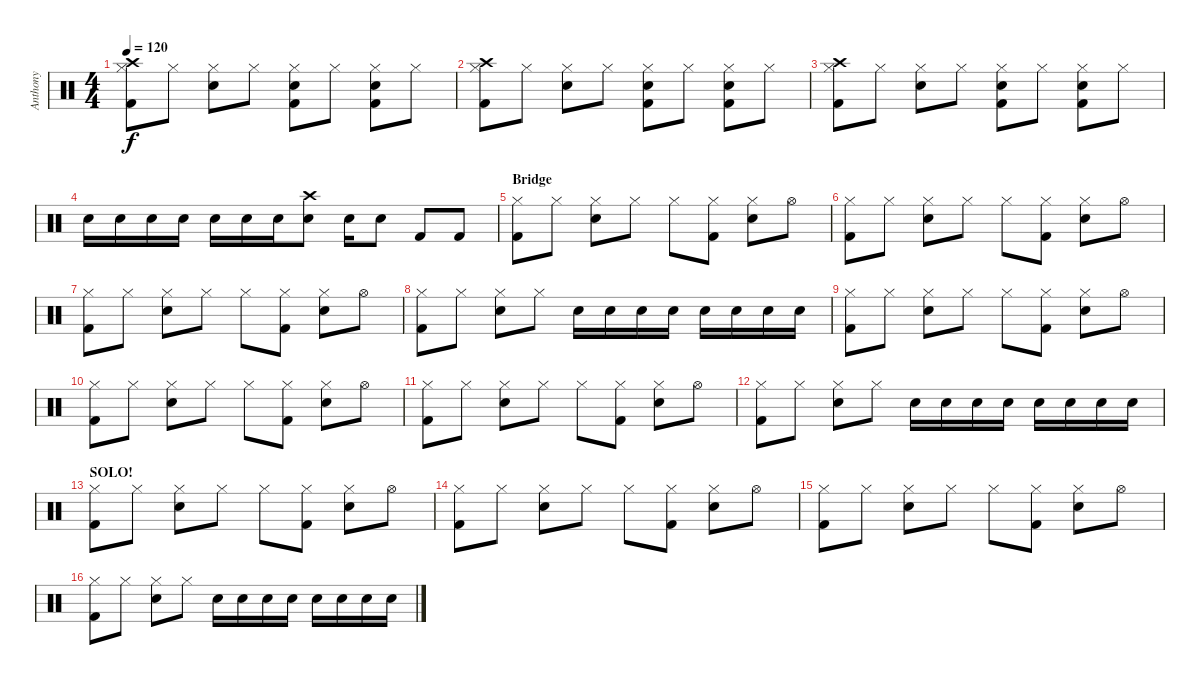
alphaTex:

\track ("Anthony" "Anthony") {instrument percussion}
\staff {score}
\articulation defaults
\ts (4 4)
\tempo 120
\clef neutral
\ks c
("Hi-Hat (closed)" "Crash high (hit)" "Kick (hit) 2").8{dy f} "Hi-Hat (closed)".8 ("Hi-Hat (closed)" "Snare (hit) 2").8 "Hi-Hat (closed)".8 ("Hi-Hat (closed)" "Snare (hit) 2" "Kick (hit) 2").8 "Hi-Hat (closed)".8 ("Hi-Hat (closed)" "Snare (hit) 2" "Kick (hit) 2").8 "Hi-Hat (closed)".8 |
("Hi-Hat (closed)" "Crash high (hit)" "Kick (hit) 2").8 "Hi-Hat (closed)".8 ("Hi-Hat (closed)" "Snare (hit) 2").8 "Hi-Hat (closed)".8 ("Hi-Hat (closed)" "Snare (hit) 2" "Kick (hit) 2").8 "Hi-Hat (closed)".8 ("Hi-Hat (closed)" "Snare (hit) 2" "Kick (hit) 2").8 "Hi-Hat (closed)".8 |
("Hi-Hat (closed)" "Crash high (hit)" "Kick (hit) 2").8 "Hi-Hat (closed)".8 ("Hi-Hat (closed)" "Snare (hit) 2").8 "Hi-Hat (closed)".8 ("Hi-Hat (closed)" "Snare (hit) 2" "Kick (hit) 2").8 "Hi-Hat (closed)".8 ("Hi-Hat (closed)" "Snare (hit) 2" "Kick (hit) 2").8 "Hi-Hat (closed)".8 |
"Snare (hit) 2".16 "Snare (hit) 2".16 "Snare (hit) 2".16 "Snare (hit) 2".16 "Snare (hit) 2".16 "Snare (hit) 2".16 "Snare (hit) 2".16 ("Snare (hit) 2" "Crash high (hit)").8 "Snare (hit) 2".16 "Snare (hit) 2".8 "Kick (hit) 2".8 "Kick (hit) 2".8 |
\section ("" "Bridge")
("Hi-Hat (closed)" "Kick (hit) 2").8 "Hi-Hat (closed)".8 ("Hi-Hat (closed)" "Snare (hit) 2").8 "Hi-Hat (closed)".8 "Hi-Hat (closed)".8 ("Hi-Hat (closed)" "Kick (hit) 2").8 ("Hi-Hat (closed)" "Snare (hit) 2").8 "Hi-Hat (open)".8 |
("Hi-Hat (closed)" "Kick (hit) 2").8 "Hi-Hat (closed)".8 ("Hi-Hat (closed)" "Snare (hit) 2").8 "Hi-Hat (closed)".8 "Hi-Hat (closed)".8 ("Hi-Hat (closed)" "Kick (hit) 2").8 ("Hi-Hat (closed)" "Snare (hit) 2").8 "Hi-Hat (open)".8 |
("Hi-Hat (closed)" "Kick (hit) 2").8 "Hi-Hat (closed)".8 ("Hi-Hat (closed)" "Snare (hit) 2").8 "Hi-Hat (closed)".8 "Hi-Hat (closed)".8 ("Hi-Hat (closed)" "Kick (hit) 2").8 ("Hi-Hat (closed)" "Snare (hit) 2").8 "Hi-Hat (open)".8 |
("Hi-Hat (closed)" "Kick (hit) 2").8 "Hi-Hat (closed)".8 ("Hi-Hat (closed)" "Snare (hit) 2").8 "Hi-Hat (closed)".8 "Snare (hit) 2".16 "Snare (hit) 2".16 "Snare (hit) 2".16 "Snare (hit) 2".16 "Snare (hit) 2".16 "Snare (hit) 2".16 "Snare (hit) 2".16 "Snare (hit) 2".16 |
("Hi-Hat (closed)" "Kick (hit) 2").8 "Hi-Hat (closed)".8 ("Hi-Hat (closed)" "Snare (hit) 2").8 "Hi-Hat (closed)".8 "Hi-Hat (closed)".8 ("Hi-Hat (closed)" "Kick (hit) 2").8 ("Hi-Hat (closed)" "Snare (hit) 2").8 "Hi-Hat (open)".8 |
("Hi-Hat (closed)" "Kick (hit) 2").8 "Hi-Hat (closed)".8 ("Hi-Hat (closed)" "Snare (hit) 2").8 "Hi-Hat (closed)".8 "Hi-Hat (closed)".8 ("Hi-Hat (closed)" "Kick (hit) 2").8 ("Hi-Hat (closed)" "Snare (hit) 2").8 "Hi-Hat (open)".8 |
("Hi-Hat (closed)" "Kick (hit) 2").8 "Hi-Hat (closed)".8 ("Hi-Hat (closed)" "Snare (hit) 2").8 "Hi-Hat (closed)".8 "Hi-Hat (closed)".8 ("Hi-Hat (closed)" "Kick (hit) 2").8 ("Hi-Hat (closed)" "Snare (hit) 2").8 "Hi-Hat (open)".8 |
("Hi-Hat (closed)" "Kick (hit) 2").8 "Hi-Hat (closed)".8 ("Hi-Hat (closed)" "Snare (hit) 2").8 "Hi-Hat (closed)".8 "Snare (hit) 2".16 "Snare (hit) 2".16 "Snare (hit) 2".16 "Snare (hit) 2".16 "Snare (hit) 2".16 "Snare (hit) 2".16 "Snare (hit) 2".16 "Snare (hit) 2".16 |
\section ("" "SOLO!")
("Hi-Hat (closed)" "Kick (hit) 2").8 "Hi-Hat (closed)".8 ("Hi-Hat (closed)" "Snare (hit) 2").8 "Hi-Hat (closed)".8 "Hi-Hat (closed)".8 ("Hi-Hat (closed)" "Kick (hit) 2").8 ("Hi-Hat (closed)" "Snare (hit) 2").8 "Hi-Hat (open)".8 |
("Hi-Hat (closed)" "Kick (hit) 2").8 "Hi-Hat (closed)".8 ("Hi-Hat (closed)" "Snare (hit) 2").8 "Hi-Hat (closed)".8 "Hi-Hat (closed)".8 ("Hi-Hat (closed)" "Kick (hit) 2").8 ("Hi-Hat (closed)" "Snare (hit) 2").8 "Hi-Hat (open)".8 |
("Hi-Hat (closed)" "Kick (hit) 2").8 "Hi-Hat (closed)".8 ("Hi-Hat (closed)" "Snare (hit) 2").8 "Hi-Hat (closed)".8 "Hi-Hat (closed)".8 ("Hi-Hat (closed)" "Kick (hit) 2").8 ("Hi-Hat (closed)" "Snare (hit) 2").8 "Hi-Hat (open)".8 |
("Hi-Hat (closed)" "Kick (hit) 2").8 "Hi-Hat (closed)".8 ("Hi-Hat (closed)" "Snare (hit) 2").8 "Hi-Hat (closed)".8 "Snare (hit) 2".16 "Snare (hit) 2".16 "Snare (hit) 2".16 "Snare (hit) 2".16 "Snare (hit) 2".16 "Snare (hit) 2".16 "Snare (hit) 2".16 "Snare (hit) 2".16
